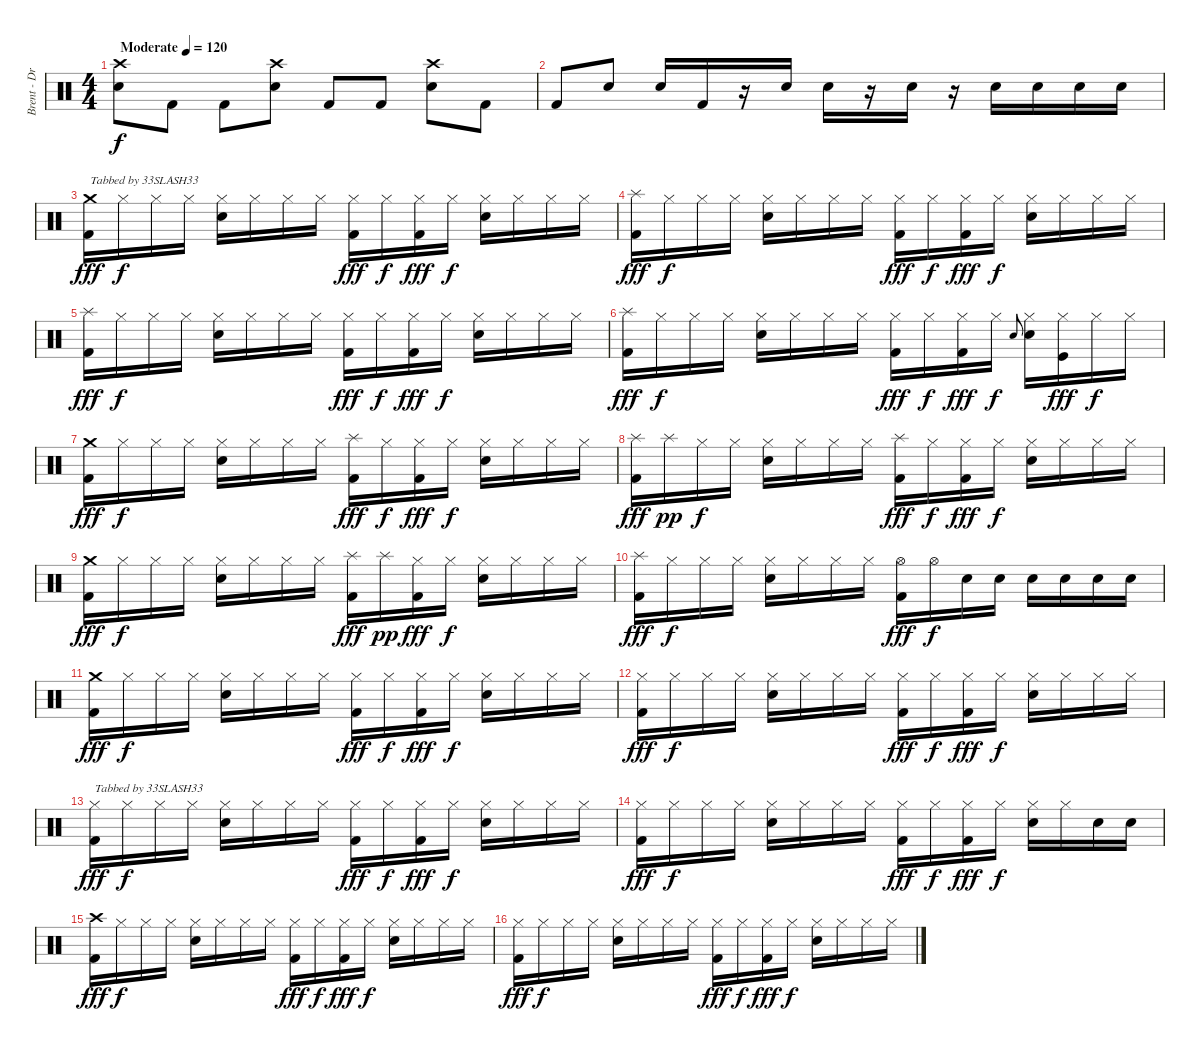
\track ("Brent - Drums" "Brent - Dr") {instrument percussion}
\staff {score}
\articulation defaults
\ts (4 4)
\tempo (120 "Moderate")
\clef neutral
\ks c
("Crash high (hit)" "Snare (hit) 2").8{dy f} "Kick (hit) 2".8 "Kick (hit) 2".8 ("Crash high (hit)" "Snare (hit) 2").8 "Kick (hit) 2".8 "Kick (hit) 2".8 ("Crash high (hit)" "Snare (hit) 2").8 "Kick (hit) 2".8 |
"Kick (hit) 2".8 "Snare (hit) 2".8 "Snare (hit) 2".16 "Kick (hit) 2".16 r.16 "Snare (hit) 2".16 "Snare (hit) 2".16 r.16 "Snare (hit) 2".16 r.16 "Snare (hit) 2".16 "Snare (hit) 2".16 "Snare (hit) 2".16 "Snare (hit) 2".16 |
("Crash medium (hit)" "Kick (hit) 2").16{txt "Tabbed by 33SLASH33" dy fff} "Hi-Hat (closed)".16{dy f} "Hi-Hat (closed)".16 "Hi-Hat (closed)".16 ("Hi-Hat (closed)" "Snare (hit) 2").16 "Hi-Hat (closed)".16 "Hi-Hat (closed)".16 "Hi-Hat (closed)".16 ("Hi-Hat (closed)" "Kick (hit) 2").16{dy fff} "Hi-Hat (closed)".16{dy f} ("Hi-Hat (closed)" "Kick (hit) 2").16{dy fff} "Hi-Hat (closed)".16{dy f} ("Hi-Hat (closed)" "Snare (hit) 2").16 "Hi-Hat (closed)".16 "Hi-Hat (closed)".16 "Hi-Hat (closed)".16 |
("Splash (hit)" "Kick (hit) 2").16{dy fff} "Hi-Hat (closed)".16{dy f} "Hi-Hat (closed)".16 "Hi-Hat (closed)".16 ("Hi-Hat (closed)" "Snare (hit) 2").16 "Hi-Hat (closed)".16 "Hi-Hat (closed)".16 "Hi-Hat (closed)".16 ("Hi-Hat (closed)" "Kick (hit) 2").16{dy fff} "Hi-Hat (closed)".16{dy f} ("Hi-Hat (closed)" "Kick (hit) 2").16{dy fff} "Hi-Hat (closed)".16{dy f} ("Hi-Hat (closed)" "Snare (hit) 2").16 "Hi-Hat (closed)".16 "Hi-Hat (closed)".16 "Hi-Hat (closed)".16 |
("Splash (hit)" "Kick (hit) 2").16{dy fff} "Hi-Hat (closed)".16{dy f} "Hi-Hat (closed)".16 "Hi-Hat (closed)".16 ("Hi-Hat (closed)" "Snare (hit) 2").16 "Hi-Hat (closed)".16 "Hi-Hat (closed)".16 "Hi-Hat (closed)".16 ("Hi-Hat (closed)" "Kick (hit) 2").16{dy fff} "Hi-Hat (closed)".16{dy f} ("Hi-Hat (closed)" "Kick (hit) 2").16{dy fff} "Hi-Hat (closed)".16{dy f} ("Hi-Hat (closed)" "Snare (hit) 2").16 "Hi-Hat (closed)".16 "Hi-Hat (closed)".16 "Hi-Hat (closed)".16 |
("Splash (hit)" "Kick (hit) 2").16{dy fff} "Hi-Hat (closed)".16{dy f} "Hi-Hat (closed)".16 "Hi-Hat (closed)".16 ("Hi-Hat (closed)" "Snare (hit) 2").16 "Hi-Hat (closed)".16 "Hi-Hat (closed)".16 "Hi-Hat (closed)".16 ("Hi-Hat (closed)" "Kick (hit) 2").16{dy fff} "Hi-Hat (closed)".16{dy f} ("Hi-Hat (closed)" "Kick (hit) 2").16{dy fff} "Hi-Hat (closed)".16{dy f} "Snare (hit) 2".8{gr onbeat} ("Hi-Hat (closed)" "Snare (hit) 2").16 ("Hi-Hat (closed)" "Kick (hit)").16{dy fff} "Hi-Hat (closed)".16{dy f} "Hi-Hat (closed)".16 |
("Crash medium (hit)" "Kick (hit) 2").16{dy fff} "Hi-Hat (closed)".16{dy f} "Hi-Hat (closed)".16 "Hi-Hat (closed)".16 ("Hi-Hat (closed)" "Snare (hit) 2").16 "Hi-Hat (closed)".16 "Hi-Hat (closed)".16 "Hi-Hat (closed)".16 ("Splash (hit)" "Kick (hit) 2").16{dy fff} "Hi-Hat (closed)".16{dy f} ("Hi-Hat (closed)" "Kick (hit) 2").16{dy fff} "Hi-Hat (closed)".16{dy f} ("Hi-Hat (closed)" "Snare (hit) 2").16 "Hi-Hat (closed)".16 "Hi-Hat (closed)".16 "Hi-Hat (closed)".16 |
("Splash (hit)" "Kick (hit) 2").16{dy fff} "Splash (hit)".16{dy pp} "Hi-Hat (closed)".16{dy f} "Hi-Hat (closed)".16 ("Hi-Hat (closed)" "Snare (hit) 2").16 "Hi-Hat (closed)".16 "Hi-Hat (closed)".16 "Hi-Hat (closed)".16 ("Splash (hit)" "Kick (hit) 2").16{dy fff} "Hi-Hat (closed)".16{dy f} ("Hi-Hat (closed)" "Kick (hit) 2").16{dy fff} "Hi-Hat (closed)".16{dy f} ("Hi-Hat (closed)" "Snare (hit) 2").16 "Hi-Hat (closed)".16 "Hi-Hat (closed)".16 "Hi-Hat (closed)".16 |
("Crash medium (hit)" "Kick (hit) 2").16{dy fff} "Hi-Hat (closed)".16{dy f} "Hi-Hat (closed)".16 "Hi-Hat (closed)".16 ("Hi-Hat (closed)" "Snare (hit) 2").16 "Hi-Hat (closed)".16 "Hi-Hat (closed)".16 "Hi-Hat (closed)".16 ("Splash (hit)" "Kick (hit) 2").16{dy fff} "Splash (hit)".16{dy pp} ("Hi-Hat (closed)" "Kick (hit) 2").16{dy fff} "Hi-Hat (closed)".16{dy f} ("Hi-Hat (closed)" "Snare (hit) 2").16 "Hi-Hat (closed)".16 "Hi-Hat (closed)".16 "Hi-Hat (closed)".16 |
("Splash (hit)" "Kick (hit) 2").16{dy fff} "Hi-Hat (closed)".16{dy f} "Hi-Hat (closed)".16 "Hi-Hat (closed)".16 ("Hi-Hat (closed)" "Snare (hit) 2").16 "Hi-Hat (closed)".16 "Hi-Hat (closed)".16 "Hi-Hat (closed)".16 ("Hi-Hat (open)" "Kick (hit) 2").16{dy fff} "Hi-Hat (open)".16{dy f} "Snare (hit) 2".16 "Snare (hit) 2".16 "Snare (hit) 2".16 "Snare (hit) 2".16 "Snare (hit) 2".16 "Snare (hit) 2".16 |
("Crash medium (hit)" "Kick (hit) 2").16{dy fff} "Hi-Hat (closed)".16{dy f} "Hi-Hat (closed)".16 "Hi-Hat (closed)".16 ("Hi-Hat (closed)" "Snare (hit) 2").16 "Hi-Hat (closed)".16 "Hi-Hat (closed)".16 "Hi-Hat (closed)".16 ("Hi-Hat (closed)" "Kick (hit) 2").16{dy fff} "Hi-Hat (closed)".16{dy f} ("Hi-Hat (closed)" "Kick (hit) 2").16{dy fff} "Hi-Hat (closed)".16{dy f} ("Hi-Hat (closed)" "Snare (hit) 2").16 "Hi-Hat (closed)".16 "Hi-Hat (closed)".16 "Hi-Hat (closed)".16 |
("Hi-Hat (closed)" "Kick (hit) 2").16{dy fff} "Hi-Hat (closed)".16{dy f} "Hi-Hat (closed)".16 "Hi-Hat (closed)".16 ("Hi-Hat (closed)" "Snare (hit) 2").16 "Hi-Hat (closed)".16 "Hi-Hat (closed)".16 "Hi-Hat (closed)".16 ("Hi-Hat (closed)" "Kick (hit) 2").16{dy fff} "Hi-Hat (closed)".16{dy f} ("Hi-Hat (closed)" "Kick (hit) 2").16{dy fff} "Hi-Hat (closed)".16{dy f} ("Hi-Hat (closed)" "Snare (hit) 2").16 "Hi-Hat (closed)".16 "Hi-Hat (closed)".16 "Hi-Hat (closed)".16 |
("Hi-Hat (closed)" "Kick (hit) 2").16{txt "Tabbed by 33SLASH33" dy fff} "Hi-Hat (closed)".16{dy f} "Hi-Hat (closed)".16 "Hi-Hat (closed)".16 ("Hi-Hat (closed)" "Snare (hit) 2").16 "Hi-Hat (closed)".16 "Hi-Hat (closed)".16 "Hi-Hat (closed)".16 ("Hi-Hat (closed)" "Kick (hit) 2").16{dy fff} "Hi-Hat (closed)".16{dy f} ("Hi-Hat (closed)" "Kick (hit) 2").16{dy fff} "Hi-Hat (closed)".16{dy f} ("Hi-Hat (closed)" "Snare (hit) 2").16 "Hi-Hat (closed)".16 "Hi-Hat (closed)".16 "Hi-Hat (closed)".16 |
("Hi-Hat (closed)" "Kick (hit) 2").16{dy fff} "Hi-Hat (closed)".16{dy f} "Hi-Hat (closed)".16 "Hi-Hat (closed)".16 ("Hi-Hat (closed)" "Snare (hit) 2").16 "Hi-Hat (closed)".16 "Hi-Hat (closed)".16 "Hi-Hat (closed)".16 ("Hi-Hat (closed)" "Kick (hit) 2").16{dy fff} "Hi-Hat (closed)".16{dy f} ("Hi-Hat (closed)" "Kick (hit) 2").16{dy fff} "Hi-Hat (closed)".16{dy f} ("Hi-Hat (closed)" "Snare (hit) 2").16 "Hi-Hat (closed)".16 "Snare (hit) 2".16 "Snare (hit) 2".16 |
("Crash high (hit)" "Kick (hit) 2").16{dy fff} "Hi-Hat (closed)".16{dy f} "Hi-Hat (closed)".16 "Hi-Hat (closed)".16 ("Hi-Hat (closed)" "Snare (hit) 2").16 "Hi-Hat (closed)".16 "Hi-Hat (closed)".16 "Hi-Hat (closed)".16 ("Hi-Hat (closed)" "Kick (hit) 2").16{dy fff} "Hi-Hat (closed)".16{dy f} ("Hi-Hat (closed)" "Kick (hit) 2").16{dy fff} "Hi-Hat (closed)".16{dy f} ("Hi-Hat (closed)" "Snare (hit) 2").16 "Hi-Hat (closed)".16 "Hi-Hat (closed)".16 "Hi-Hat (closed)".16 |
("Hi-Hat (closed)" "Kick (hit) 2").16{dy fff} "Hi-Hat (closed)".16{dy f} "Hi-Hat (closed)".16 "Hi-Hat (closed)".16 ("Hi-Hat (closed)" "Snare (hit) 2").16 "Hi-Hat (closed)".16 "Hi-Hat (closed)".16 "Hi-Hat (closed)".16 ("Hi-Hat (closed)" "Kick (hit) 2").16{dy fff} "Hi-Hat (closed)".16{dy f} ("Hi-Hat (closed)" "Kick (hit) 2").16{dy fff} "Hi-Hat (closed)".16{dy f} ("Hi-Hat (closed)" "Snare (hit) 2").16 "Hi-Hat (closed)".16 "Hi-Hat (closed)".16 "Hi-Hat (closed)".16
